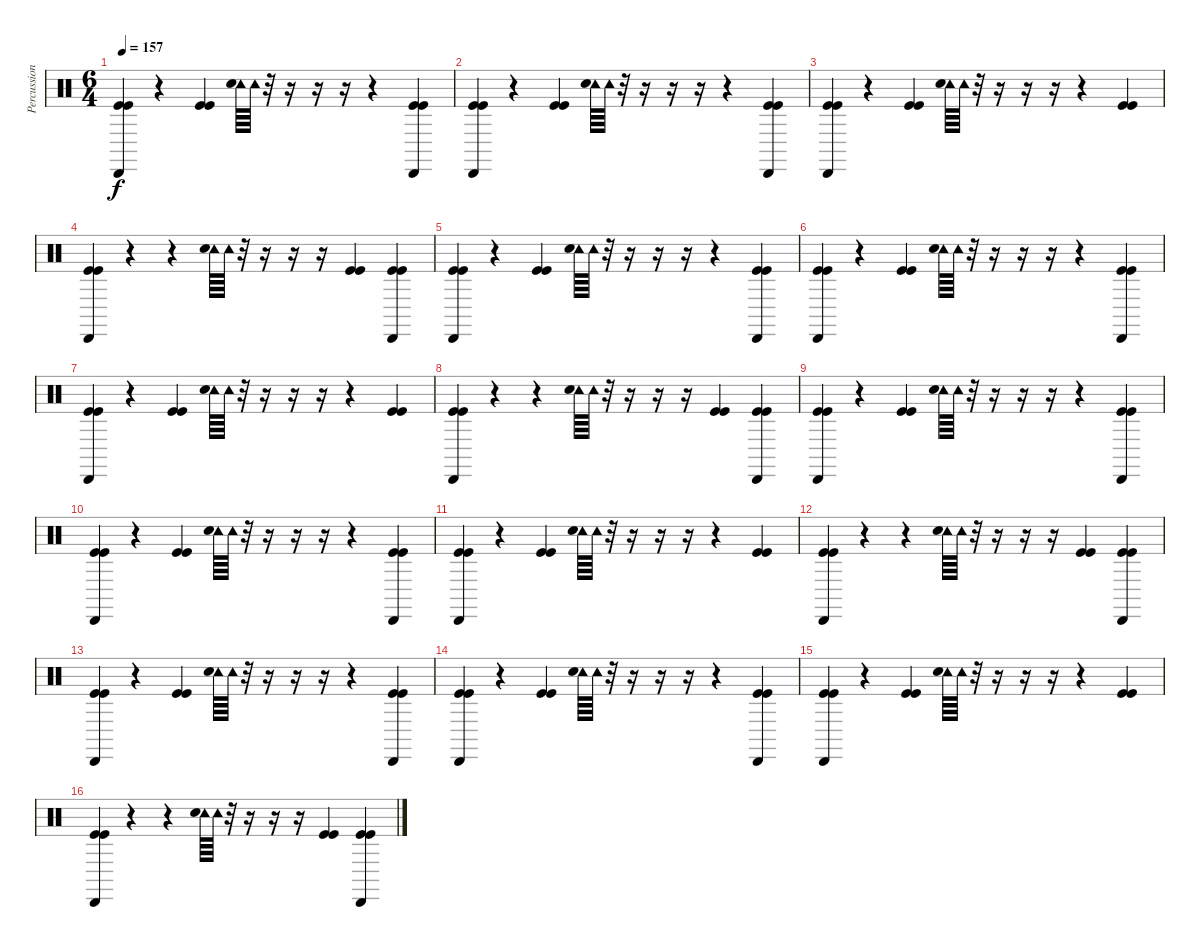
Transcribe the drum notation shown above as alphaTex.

\track ("Percussions" "Percussion") {instrument percussion}
\staff {score}
\articulation defaults
\ts (6 4)
\tempo 157
\clef neutral
\ks c
("Cabasa (hit)" "Kick (hit)" "Kick (hit)").4{dy f} r.4 ("Kick (hit)" "Kick (hit)").4 ("Tambourine (hit)" "Snare (hit) 2").64 "Tambourine (hit)".64 r.32 r.16 r.16 r.16 r.4 ("Cabasa (hit)" "Kick (hit)" "Kick (hit)").4 |
("Cabasa (hit)" "Kick (hit)" "Kick (hit)").4 r.4 ("Kick (hit)" "Kick (hit)").4 ("Tambourine (hit)" "Snare (hit) 2").64 "Tambourine (hit)".64 r.32 r.16 r.16 r.16 r.4 ("Cabasa (hit)" "Kick (hit)" "Kick (hit)").4 |
("Cabasa (hit)" "Kick (hit)" "Kick (hit)").4 r.4 ("Kick (hit)" "Kick (hit)").4 ("Tambourine (hit)" "Snare (hit) 2").64 "Tambourine (hit)".64 r.32 r.16 r.16 r.16 r.4 ("Kick (hit)" "Kick (hit)").4 |
("Cabasa (hit)" "Kick (hit)" "Kick (hit)").4 r.4 r.4 ("Tambourine (hit)" "Snare (hit) 2").64 "Tambourine (hit)".64 r.32 r.16 r.16 r.16 ("Kick (hit)" "Kick (hit)").4 ("Cabasa (hit)" "Kick (hit)" "Kick (hit)").4 |
("Cabasa (hit)" "Kick (hit)" "Kick (hit)").4 r.4 ("Kick (hit)" "Kick (hit)").4 ("Tambourine (hit)" "Snare (hit) 2").64 "Tambourine (hit)".64 r.32 r.16 r.16 r.16 r.4 ("Cabasa (hit)" "Kick (hit)" "Kick (hit)").4 |
("Cabasa (hit)" "Kick (hit)" "Kick (hit)").4 r.4 ("Kick (hit)" "Kick (hit)").4 ("Tambourine (hit)" "Snare (hit) 2").64 "Tambourine (hit)".64 r.32 r.16 r.16 r.16 r.4 ("Cabasa (hit)" "Kick (hit)" "Kick (hit)").4 |
("Cabasa (hit)" "Kick (hit)" "Kick (hit)").4 r.4 ("Kick (hit)" "Kick (hit)").4 ("Tambourine (hit)" "Snare (hit) 2").64 "Tambourine (hit)".64 r.32 r.16 r.16 r.16 r.4 ("Kick (hit)" "Kick (hit)").4 |
("Cabasa (hit)" "Kick (hit)" "Kick (hit)").4 r.4 r.4 ("Tambourine (hit)" "Snare (hit) 2").64 "Tambourine (hit)".64 r.32 r.16 r.16 r.16 ("Kick (hit)" "Kick (hit)").4 ("Cabasa (hit)" "Kick (hit)" "Kick (hit)").4 |
("Cabasa (hit)" "Kick (hit)" "Kick (hit)").4 r.4 ("Kick (hit)" "Kick (hit)").4 ("Tambourine (hit)" "Snare (hit) 2").64 "Tambourine (hit)".64 r.32 r.16 r.16 r.16 r.4 ("Cabasa (hit)" "Kick (hit)" "Kick (hit)").4 |
("Cabasa (hit)" "Kick (hit)" "Kick (hit)").4 r.4 ("Kick (hit)" "Kick (hit)").4 ("Tambourine (hit)" "Snare (hit) 2").64 "Tambourine (hit)".64 r.32 r.16 r.16 r.16 r.4 ("Cabasa (hit)" "Kick (hit)" "Kick (hit)").4 |
("Cabasa (hit)" "Kick (hit)" "Kick (hit)").4 r.4 ("Kick (hit)" "Kick (hit)").4 ("Tambourine (hit)" "Snare (hit) 2").64 "Tambourine (hit)".64 r.32 r.16 r.16 r.16 r.4 ("Kick (hit)" "Kick (hit)").4 |
("Cabasa (hit)" "Kick (hit)" "Kick (hit)").4 r.4 r.4 ("Tambourine (hit)" "Snare (hit) 2").64 "Tambourine (hit)".64 r.32 r.16 r.16 r.16 ("Kick (hit)" "Kick (hit)").4 ("Cabasa (hit)" "Kick (hit)" "Kick (hit)").4 |
("Cabasa (hit)" "Kick (hit)" "Kick (hit)").4 r.4 ("Kick (hit)" "Kick (hit)").4 ("Tambourine (hit)" "Snare (hit) 2").64 "Tambourine (hit)".64 r.32 r.16 r.16 r.16 r.4 ("Cabasa (hit)" "Kick (hit)" "Kick (hit)").4 |
("Cabasa (hit)" "Kick (hit)" "Kick (hit)").4 r.4 ("Kick (hit)" "Kick (hit)").4 ("Tambourine (hit)" "Snare (hit) 2").64 "Tambourine (hit)".64 r.32 r.16 r.16 r.16 r.4 ("Cabasa (hit)" "Kick (hit)" "Kick (hit)").4 |
("Cabasa (hit)" "Kick (hit)" "Kick (hit)").4 r.4 ("Kick (hit)" "Kick (hit)").4 ("Tambourine (hit)" "Snare (hit) 2").64 "Tambourine (hit)".64 r.32 r.16 r.16 r.16 r.4 ("Kick (hit)" "Kick (hit)").4 |
("Cabasa (hit)" "Kick (hit)" "Kick (hit)").4 r.4 r.4 ("Tambourine (hit)" "Snare (hit) 2").64 "Tambourine (hit)".64 r.32 r.16 r.16 r.16 ("Kick (hit)" "Kick (hit)").4 ("Cabasa (hit)" "Kick (hit)" "Kick (hit)").4
